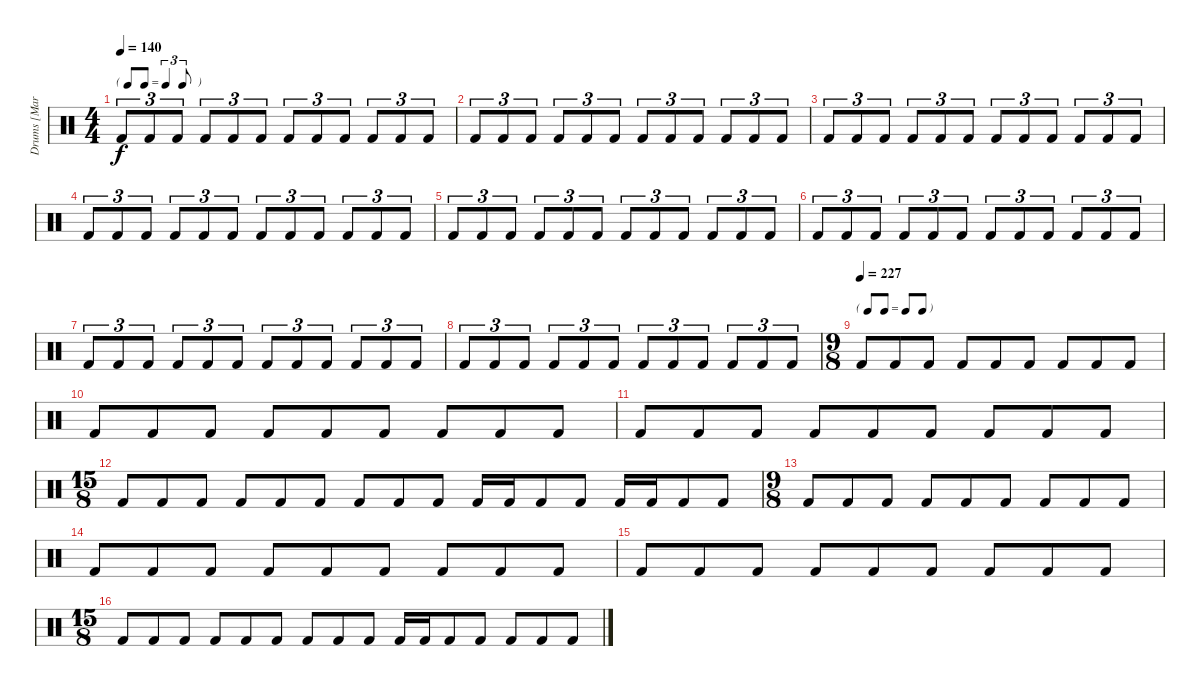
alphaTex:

\track ("Drums [Martin Lopez]" "Drums [Mar") {instrument percussion}
\staff {score}
\articulation defaults
\ts (4 4)
\tf triplet8th
\tempo 140
\clef neutral
\ks c "Kick (hit) 2".8{tu (3 2) dy f} "Kick (hit) 2".8{tu (3 2)} "Kick (hit) 2".8{tu (3 2)} "Kick (hit) 2".8{tu (3 2)} "Kick (hit) 2".8{tu (3 2)} "Kick (hit) 2".8{tu (3 2)} "Kick (hit) 2".8{tu (3 2)} "Kick (hit) 2".8{tu (3 2)} "Kick (hit) 2".8{tu (3 2)} "Kick (hit) 2".8{tu (3 2)} "Kick (hit) 2".8{tu (3 2)} "Kick (hit) 2".8{tu (3 2)}
|
"Kick (hit) 2".8{tu (3 2)} "Kick (hit) 2".8{tu (3 2)} "Kick (hit) 2".8{tu (3 2)} "Kick (hit) 2".8{tu (3 2)} "Kick (hit) 2".8{tu (3 2)} "Kick (hit) 2".8{tu (3 2)} "Kick (hit) 2".8{tu (3 2)} "Kick (hit) 2".8{tu (3 2)} "Kick (hit) 2".8{tu (3 2)} "Kick (hit) 2".8{tu (3 2)} "Kick (hit) 2".8{tu (3 2)} "Kick (hit) 2".8{tu (3 2)} |
"Kick (hit) 2".8{tu (3 2)} "Kick (hit) 2".8{tu (3 2)} "Kick (hit) 2".8{tu (3 2)} "Kick (hit) 2".8{tu (3 2)} "Kick (hit) 2".8{tu (3 2)} "Kick (hit) 2".8{tu (3 2)} "Kick (hit) 2".8{tu (3 2)} "Kick (hit) 2".8{tu (3 2)} "Kick (hit) 2".8{tu (3 2)} "Kick (hit) 2".8{tu (3 2)} "Kick (hit) 2".8{tu (3 2)} "Kick (hit) 2".8{tu (3 2)} |
"Kick (hit) 2".8{tu (3 2)} "Kick (hit) 2".8{tu (3 2)} "Kick (hit) 2".8{tu (3 2)} "Kick (hit) 2".8{tu (3 2)} "Kick (hit) 2".8{tu (3 2)} "Kick (hit) 2".8{tu (3 2)} "Kick (hit) 2".8{tu (3 2)} "Kick (hit) 2".8{tu (3 2)} "Kick (hit) 2".8{tu (3 2)} "Kick (hit) 2".8{tu (3 2)} "Kick (hit) 2".8{tu (3 2)} "Kick (hit) 2".8{tu (3 2)} |
"Kick (hit) 2".8{tu (3 2)} "Kick (hit) 2".8{tu (3 2)} "Kick (hit) 2".8{tu (3 2)} "Kick (hit) 2".8{tu (3 2)} "Kick (hit) 2".8{tu (3 2)} "Kick (hit) 2".8{tu (3 2)} "Kick (hit) 2".8{tu (3 2)} "Kick (hit) 2".8{tu (3 2)} "Kick (hit) 2".8{tu (3 2)} "Kick (hit) 2".8{tu (3 2)} "Kick (hit) 2".8{tu (3 2)} "Kick (hit) 2".8{tu (3 2)} |
"Kick (hit) 2".8{tu (3 2)} "Kick (hit) 2".8{tu (3 2)} "Kick (hit) 2".8{tu (3 2)} "Kick (hit) 2".8{tu (3 2)} "Kick (hit) 2".8{tu (3 2)} "Kick (hit) 2".8{tu (3 2)} "Kick (hit) 2".8{tu (3 2)} "Kick (hit) 2".8{tu (3 2)} "Kick (hit) 2".8{tu (3 2)} "Kick (hit) 2".8{tu (3 2)} "Kick (hit) 2".8{tu (3 2)} "Kick (hit) 2".8{tu (3 2)} |
"Kick (hit) 2".8{tu (3 2)} "Kick (hit) 2".8{tu (3 2)} "Kick (hit) 2".8{tu (3 2)} "Kick (hit) 2".8{tu (3 2)} "Kick (hit) 2".8{tu (3 2)} "Kick (hit) 2".8{tu (3 2)} "Kick (hit) 2".8{tu (3 2)} "Kick (hit) 2".8{tu (3 2)} "Kick (hit) 2".8{tu (3 2)} "Kick (hit) 2".8{tu (3 2)} "Kick (hit) 2".8{tu (3 2)} "Kick (hit) 2".8{tu (3 2)} |
"Kick (hit) 2".8{tu (3 2)} "Kick (hit) 2".8{tu (3 2)} "Kick (hit) 2".8{tu (3 2)} "Kick (hit) 2".8{tu (3 2)} "Kick (hit) 2".8{tu (3 2)} "Kick (hit) 2".8{tu (3 2)} "Kick (hit) 2".8{tu (3 2)} "Kick (hit) 2".8{tu (3 2)} "Kick (hit) 2".8{tu (3 2)} "Kick (hit) 2".8{tu (3 2)} "Kick (hit) 2".8{tu (3 2)} "Kick (hit) 2".8{tu (3 2)} |
\ts (9 8)
\tf none
\tempo (227)
"Kick (hit) 2".8 "Kick (hit) 2".8 "Kick (hit) 2".8 "Kick (hit) 2".8 "Kick (hit) 2".8 "Kick (hit) 2".8 "Kick (hit) 2".8 "Kick (hit) 2".8 "Kick (hit) 2".8 |
"Kick (hit) 2".8 "Kick (hit) 2".8 "Kick (hit) 2".8 "Kick (hit) 2".8 "Kick (hit) 2".8 "Kick (hit) 2".8 "Kick (hit) 2".8 "Kick (hit) 2".8 "Kick (hit) 2".8 |
"Kick (hit) 2".8 "Kick (hit) 2".8 "Kick (hit) 2".8 "Kick (hit) 2".8 "Kick (hit) 2".8 "Kick (hit) 2".8 "Kick (hit) 2".8 "Kick (hit) 2".8 "Kick (hit) 2".8 |
\ts (15 8)
"Kick (hit) 2".8 "Kick (hit) 2".8 "Kick (hit) 2".8 "Kick (hit) 2".8 "Kick (hit) 2".8 "Kick (hit) 2".8 "Kick (hit) 2".8 "Kick (hit) 2".8 "Kick (hit) 2".8 "Kick (hit) 2".16 "Kick (hit) 2".16 "Kick (hit) 2".8 "Kick (hit) 2".8 "Kick (hit) 2".16 "Kick (hit) 2".16 "Kick (hit) 2".8 "Kick (hit) 2".8 |
\ts (9 8)
"Kick (hit) 2".8 "Kick (hit) 2".8 "Kick (hit) 2".8 "Kick (hit) 2".8 "Kick (hit) 2".8 "Kick (hit) 2".8 "Kick (hit) 2".8 "Kick (hit) 2".8 "Kick (hit) 2".8 |
"Kick (hit) 2".8 "Kick (hit) 2".8 "Kick (hit) 2".8 "Kick (hit) 2".8 "Kick (hit) 2".8 "Kick (hit) 2".8 "Kick (hit) 2".8 "Kick (hit) 2".8 "Kick (hit) 2".8 |
"Kick (hit) 2".8 "Kick (hit) 2".8 "Kick (hit) 2".8 "Kick (hit) 2".8 "Kick (hit) 2".8 "Kick (hit) 2".8 "Kick (hit) 2".8 "Kick (hit) 2".8 "Kick (hit) 2".8 |
\ts (15 8)
"Kick (hit) 2".8 "Kick (hit) 2".8 "Kick (hit) 2".8 "Kick (hit) 2".8 "Kick (hit) 2".8 "Kick (hit) 2".8 "Kick (hit) 2".8 "Kick (hit) 2".8 "Kick (hit) 2".8 "Kick (hit) 2".16 "Kick (hit) 2".16 "Kick (hit) 2".8 "Kick (hit) 2".8 "Kick (hit) 2".8 "Kick (hit) 2".8 "Kick (hit) 2".8
